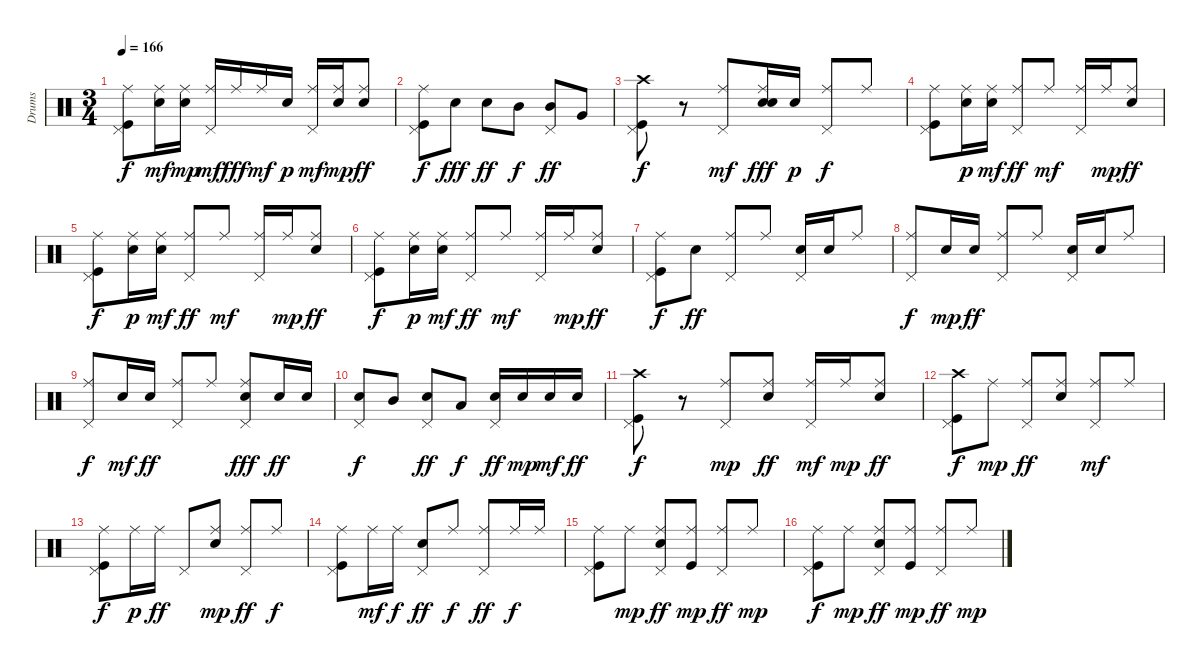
\track ("Drums" "Drums") {instrument percussion}
\staff {score}
\articulation defaults
\ts (3 4)
\tempo 166
\clef neutral
\ks c
("Kick (hit)" "Pedal Hi-Hat (hit)" "Ride (middle)").8{dy f} ("Snare (hit) 2" "Ride (middle)").16{dy mf} ("Snare (hit) 2" "Ride (middle)").16{dy mp} ("Pedal Hi-Hat (hit)" "Ride (middle)").16{dy mf} "Ride (middle)".16{dy fff} "Ride (middle)".16{dy mf} "Snare (hit) 2".16{dy p} ("Pedal Hi-Hat (hit)" "Ride (middle)").16{dy mf} ("Snare (hit) 2" "Ride (middle)").16{dy mp} ("Snare (hit) 2" "Ride (middle)").8{dy ff} |
("Kick (hit)" "Pedal Hi-Hat (hit)" "Ride (middle)").8{dy f} "Electric Snare (hit)".8{dy fff} "Electric Snare (hit)".8{dy ff} "Mid Tom (hit)".8{dy f} ("Mid Tom (hit)" "Pedal Hi-Hat (hit)").8{dy ff} "Very Low Tom (hit)".8 |
("Kick (hit)" "Pedal Hi-Hat (hit)" "Crash high (hit)").8{dy f} r.8 ("Pedal Hi-Hat (hit)" "Ride (middle)").8{dy mf} ("Snare (hit) 2" "Electric Snare (hit)" "Ride (middle)").16{dy fff} "Snare (hit) 2".16{dy p} ("Ride (middle)" "Pedal Hi-Hat (hit)").8{dy f} "Ride (middle)".8 |
("Kick (hit)" "Pedal Hi-Hat (hit)" "Ride (middle)").8 ("Snare (hit) 2" "Ride (middle)").16{dy p} ("Snare (hit) 2" "Ride (middle)").16{dy mf} ("Pedal Hi-Hat (hit)" "Ride (middle)").8{dy ff} "Ride (middle)".8{dy mf} ("Pedal Hi-Hat (hit)" "Ride (middle)").16 "Ride (middle)".16{dy mp} ("Snare (hit) 2" "Ride (middle)").8{dy ff} |
("Kick (hit)" "Pedal Hi-Hat (hit)" "Ride (middle)").8{dy f} ("Snare (hit) 2" "Ride (middle)").16{dy p} ("Snare (hit) 2" "Ride (middle)").16{dy mf} ("Pedal Hi-Hat (hit)" "Ride (middle)").8{dy ff} "Ride (middle)".8{dy mf} ("Pedal Hi-Hat (hit)" "Ride (middle)").16 "Ride (middle)".16{dy mp} ("Snare (hit) 2" "Ride (middle)").8{dy ff} |
("Kick (hit)" "Pedal Hi-Hat (hit)" "Ride (middle)").8{dy f} ("Snare (hit) 2" "Ride (middle)").16{dy p} ("Snare (hit) 2" "Ride (middle)").16{dy mf} ("Pedal Hi-Hat (hit)" "Ride (middle)").8{dy ff} "Ride (middle)".8{dy mf} ("Pedal Hi-Hat (hit)" "Ride (middle)").16 "Ride (middle)".16{dy mp} ("Snare (hit) 2" "Ride (middle)").8{dy ff} |
("Kick (hit)" "Pedal Hi-Hat (hit)" "Ride (middle)").8{dy f} "Electric Snare (hit)".8{dy ff} ("Pedal Hi-Hat (hit)" "Ride (middle)").8 "Ride (middle)".8 ("Electric Snare (hit)" "Pedal Hi-Hat (hit)").16 "Electric Snare (hit)".16 "Ride (middle)".8 |
("Pedal Hi-Hat (hit)" "Ride (middle)").8{dy f} "Electric Snare (hit)".16{dy mp} "Electric Snare (hit)".16{dy ff} ("Pedal Hi-Hat (hit)" "Ride (middle)").8 "Ride (middle)".8 ("Electric Snare (hit)" "Pedal Hi-Hat (hit)").16 "Electric Snare (hit)".16 "Ride (middle)".8 |
("Pedal Hi-Hat (hit)" "Ride (middle)").8{dy f} "Electric Snare (hit)".16{dy mf} "Electric Snare (hit)".16{dy ff} ("Pedal Hi-Hat (hit)" "Ride (middle)").8 "Ride (middle)".8 ("Electric Snare (hit)" "Pedal Hi-Hat (hit)" "Ride (middle)").8{dy fff} "Electric Snare (hit)".16{dy ff} "Electric Snare (hit)".16 |
("Electric Snare (hit)" "Pedal Hi-Hat (hit)").8{dy f} "Mid Tom (hit)".8 ("Electric Snare (hit)" "Pedal Hi-Hat (hit)").8{dy ff} "Low Tom (hit)".8{dy f} ("Electric Snare (hit)" "Pedal Hi-Hat (hit)").16{dy ff} "Electric Snare (hit)".16{dy mp} "Electric Snare (hit)".16{dy mf} "Electric Snare (hit)".16{dy ff} |
("Kick (hit)" "Pedal Hi-Hat (hit)" "Crash high (hit)").8{dy f} r.8 ("Pedal Hi-Hat (hit)" "Ride (middle)").8{dy mp} ("Electric Snare (hit)" "Ride (middle)").8{dy ff} ("Pedal Hi-Hat (hit)" "Ride (middle)").16{dy mf} "Ride (middle)".16{dy mp} ("Snare (hit) 2" "Ride (middle)").8{dy ff} |
("Kick (hit)" "Pedal Hi-Hat (hit)" "Crash high (hit)").8{dy f} "Ride (middle)".8{dy mp} ("Pedal Hi-Hat (hit)" "Ride (middle)").8{dy ff} ("Electric Snare (hit)" "Ride (middle)").8 ("Pedal Hi-Hat (hit)" "Ride (middle)").8{dy mf} "Ride (middle)".8 |
("Kick (hit)" "Pedal Hi-Hat (hit)" "Ride (middle)").8{dy f} "Ride (middle)".16{dy p} "Ride (middle)".16{dy ff} "Pedal Hi-Hat (hit)".8 ("Electric Snare (hit)" "Ride (middle)").8{dy mp} ("Pedal Hi-Hat (hit)" "Ride (middle)").8{dy ff} "Ride (middle)".8{dy f} |
("Kick (hit)" "Pedal Hi-Hat (hit)" "Ride (middle)").8 "Ride (middle)".16{dy mf} "Ride (middle)".16{dy f} ("Electric Snare (hit)" "Pedal Hi-Hat (hit)").8{dy ff} "Ride (middle)".8{dy f} ("Pedal Hi-Hat (hit)" "Ride (middle)").8{dy ff} "Ride (middle)".16{dy f} "Ride (middle)".16 |
("Kick (hit)" "Pedal Hi-Hat (hit)" "Ride (middle)").8 "Ride (middle)".8{dy mp} ("Electric Snare (hit)" "Pedal Hi-Hat (hit)" "Ride (middle)").8{dy ff} ("Kick (hit)" "Ride (middle)").8{dy mp} ("Pedal Hi-Hat (hit)" "Ride (middle)").8{dy ff} "Ride (middle)".8{dy mp} |
("Kick (hit)" "Pedal Hi-Hat (hit)" "Ride (middle)").8{dy f} "Ride (middle)".8{dy mp} ("Electric Snare (hit)" "Pedal Hi-Hat (hit)" "Ride (middle)").8{dy ff} ("Kick (hit)" "Ride (middle)").8{dy mp} ("Pedal Hi-Hat (hit)" "Ride (middle)").8{dy ff} "Ride (middle)".8{dy mp}
